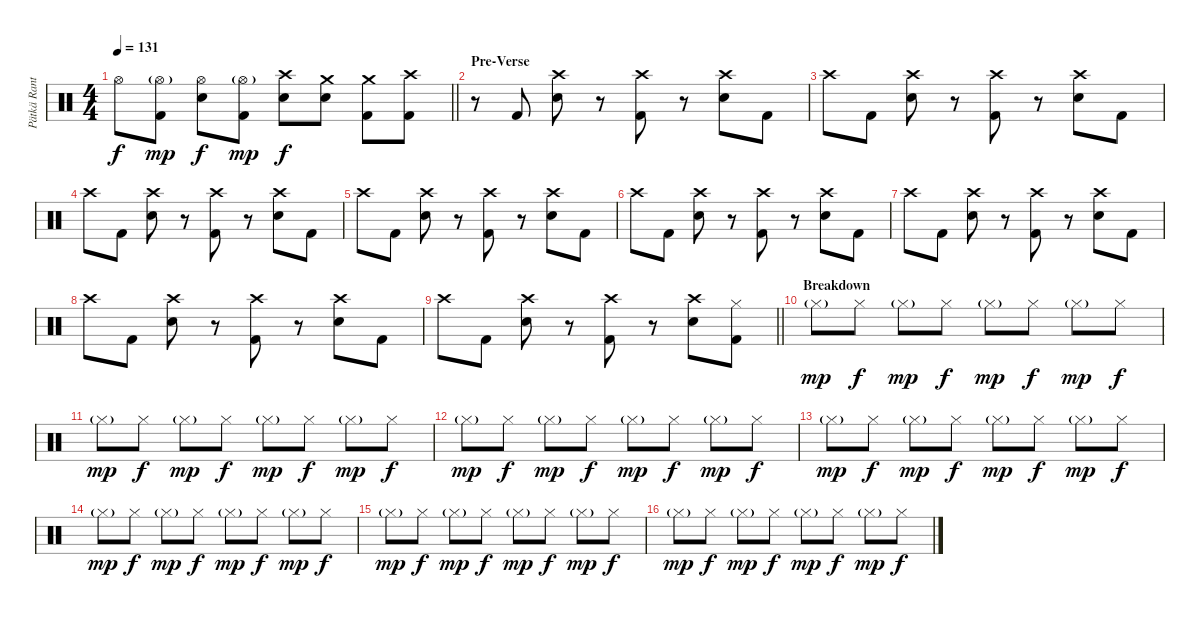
\track ("Pätkä Rantala (Drums)" "Pätkä Rant") {instrument percussion}
\staff {score}
\articulation defaults
\ts (4 4)
\tempo 131
\clef neutral
\barLineRight lightlight
\ks c "Hi-Hat (open)".8{dy f}
("Hi-Hat (open)"{g} "Kick (hit) 2").8{dy mp} ("Hi-Hat (open)" "Snare (hit) 2").8{dy f} ("Hi-Hat (open)"{g} "Kick (hit) 2").8{dy mp} ("Crash high (hit)" "Snare (hit) 2").8{dy f} ("Crash medium (hit)" "Snare (hit) 2").8 ("Crash medium (hit)" "Kick (hit) 2").8 ("Crash high (hit)" "Kick (hit) 2").8 |
\section ("" "Pre-Verse")
r.8 "Kick (hit) 2".8 ("Crash high (hit)" "Snare (hit) 2").8 r.8 ("Crash high (hit)" "Kick (hit) 2").8 r.8 ("Crash high (hit)" "Snare (hit) 2").8 "Kick (hit) 2".8 |
"Crash high (hit)".8 "Kick (hit) 2".8 ("Crash high (hit)" "Snare (hit) 2").8 r.8 ("Crash high (hit)" "Kick (hit) 2").8 r.8 ("Crash high (hit)" "Snare (hit) 2").8 "Kick (hit) 2".8 |
"Crash high (hit)".8 "Kick (hit) 2".8 ("Crash high (hit)" "Snare (hit) 2").8 r.8 ("Crash high (hit)" "Kick (hit) 2").8 r.8 ("Crash high (hit)" "Snare (hit) 2").8 "Kick (hit) 2".8 |
"Crash high (hit)".8 "Kick (hit) 2".8 ("Crash high (hit)" "Snare (hit) 2").8 r.8 ("Crash high (hit)" "Kick (hit) 2").8 r.8 ("Crash high (hit)" "Snare (hit) 2").8 "Kick (hit) 2".8 |
"Crash high (hit)".8 "Kick (hit) 2".8 ("Crash high (hit)" "Snare (hit) 2").8 r.8 ("Crash high (hit)" "Kick (hit) 2").8 r.8 ("Crash high (hit)" "Snare (hit) 2").8 "Kick (hit) 2".8 |
"Crash high (hit)".8 "Kick (hit) 2".8 ("Crash high (hit)" "Snare (hit) 2").8 r.8 ("Crash high (hit)" "Kick (hit) 2").8 r.8 ("Crash high (hit)" "Snare (hit) 2").8 "Kick (hit) 2".8 |
"Crash high (hit)".8 "Kick (hit) 2".8 ("Crash high (hit)" "Snare (hit) 2").8 r.8 ("Crash high (hit)" "Kick (hit) 2").8 r.8 ("Crash high (hit)" "Snare (hit) 2").8 "Kick (hit) 2".8 |
\barLineRight lightlight "Crash high (hit)".8 "Kick (hit) 2".8
("Crash high (hit)" "Snare (hit) 2").8 r.8 ("Crash high (hit)" "Kick (hit) 2").8 r.8 ("Crash high (hit)" "Snare (hit) 2").8 ("Hi-Hat (closed)" "Kick (hit) 2").8 |
\section ("" "Breakdown")
"Hi-Hat (closed)"{g}.8{dy mp} "Hi-Hat (closed)".8{dy f} "Hi-Hat (closed)"{g}.8{dy mp} "Hi-Hat (closed)".8{dy f} "Hi-Hat (closed)"{g}.8{dy mp} "Hi-Hat (closed)".8{dy f} "Hi-Hat (closed)"{g}.8{dy mp} "Hi-Hat (closed)".8{dy f} |
"Hi-Hat (closed)"{g}.8{dy mp} "Hi-Hat (closed)".8{dy f} "Hi-Hat (closed)"{g}.8{dy mp} "Hi-Hat (closed)".8{dy f} "Hi-Hat (closed)"{g}.8{dy mp} "Hi-Hat (closed)".8{dy f} "Hi-Hat (closed)"{g}.8{dy mp} "Hi-Hat (closed)".8{dy f} |
"Hi-Hat (closed)"{g}.8{dy mp} "Hi-Hat (closed)".8{dy f} "Hi-Hat (closed)"{g}.8{dy mp} "Hi-Hat (closed)".8{dy f} "Hi-Hat (closed)"{g}.8{dy mp} "Hi-Hat (closed)".8{dy f} "Hi-Hat (closed)"{g}.8{dy mp} "Hi-Hat (closed)".8{dy f} |
"Hi-Hat (closed)"{g}.8{dy mp} "Hi-Hat (closed)".8{dy f} "Hi-Hat (closed)"{g}.8{dy mp} "Hi-Hat (closed)".8{dy f} "Hi-Hat (closed)"{g}.8{dy mp} "Hi-Hat (closed)".8{dy f} "Hi-Hat (closed)"{g}.8{dy mp} "Hi-Hat (closed)".8{dy f} |
"Hi-Hat (closed)"{g}.8{dy mp} "Hi-Hat (closed)".8{dy f} "Hi-Hat (closed)"{g}.8{dy mp} "Hi-Hat (closed)".8{dy f} "Hi-Hat (closed)"{g}.8{dy mp} "Hi-Hat (closed)".8{dy f} "Hi-Hat (closed)"{g}.8{dy mp} "Hi-Hat (closed)".8{dy f} |
"Hi-Hat (closed)"{g}.8{dy mp} "Hi-Hat (closed)".8{dy f} "Hi-Hat (closed)"{g}.8{dy mp} "Hi-Hat (closed)".8{dy f} "Hi-Hat (closed)"{g}.8{dy mp} "Hi-Hat (closed)".8{dy f} "Hi-Hat (closed)"{g}.8{dy mp} "Hi-Hat (closed)".8{dy f} |
"Hi-Hat (closed)"{g}.8{dy mp} "Hi-Hat (closed)".8{dy f} "Hi-Hat (closed)"{g}.8{dy mp} "Hi-Hat (closed)".8{dy f} "Hi-Hat (closed)"{g}.8{dy mp} "Hi-Hat (closed)".8{dy f} "Hi-Hat (closed)"{g}.8{dy mp} "Hi-Hat (closed)".8{dy f}
